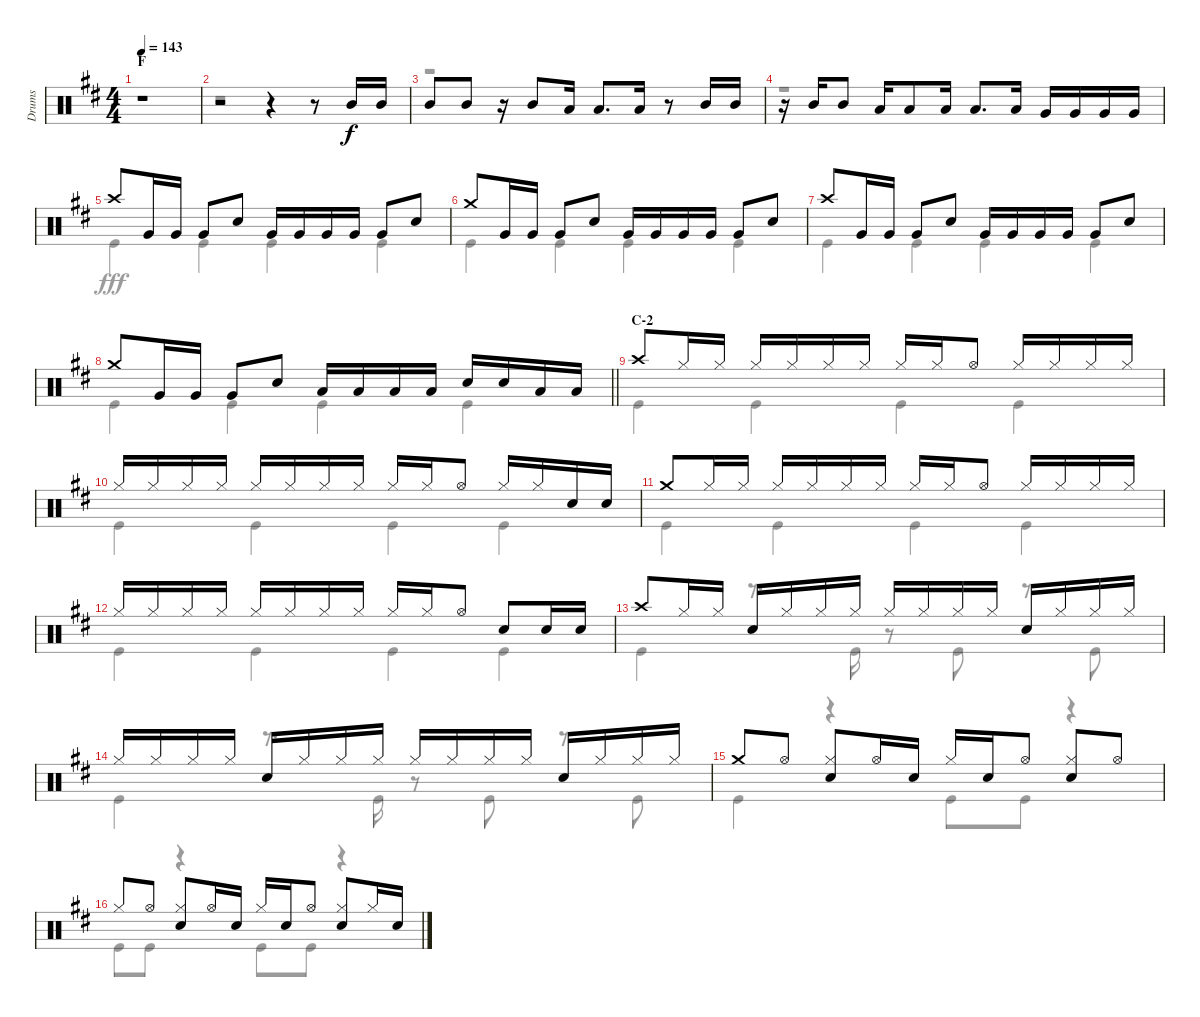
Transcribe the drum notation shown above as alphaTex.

\track ("Drums" "Drums") {instrument percussion}
\staff {score}
\articulation defaults
\voice
\ts (4 4)
\section ("" "F")
\tempo 143
\clef neutral
\ks d
r.1{dy f} |
r.2 r.4 r.8 "Mid Tom (hit)".16 "Mid Tom (hit)".16 |
"Mid Tom (hit)".8 "Mid Tom (hit)".8 r.16 "Mid Tom (hit)".8 "Low Tom (hit)".16 "Low Tom (hit)".8{d} "Low Tom (hit)".16 r.8 "Mid Tom (hit)".16 "Mid Tom (hit)".16 |
r.16 "Mid Tom (hit)".16 "Mid Tom (hit)".8 "Low Tom (hit)".16 "Low Tom (hit)".8 "Low Tom (hit)".16 "Low Tom (hit)".8{d} "Low Tom (hit)".16 "Very Low Tom (hit)".16 "Very Low Tom (hit)".16 "Very Low Tom (hit)".16 "Very Low Tom (hit)".16 |
"Crash high (hit)".8 "Very Low Tom (hit)".16 "Very Low Tom (hit)".16 "Very Low Tom (hit)".8 "Snare (hit) 2".8 "Very Low Tom (hit)".16 "Very Low Tom (hit)".16 "Very Low Tom (hit)".16 "Very Low Tom (hit)".16 "Very Low Tom (hit)".8 "Snare (hit) 2".8 |
"Crash medium (hit)".8 "Very Low Tom (hit)".16 "Very Low Tom (hit)".16 "Very Low Tom (hit)".8 "Snare (hit) 2".8 "Very Low Tom (hit)".16 "Very Low Tom (hit)".16 "Very Low Tom (hit)".16 "Very Low Tom (hit)".16 "Very Low Tom (hit)".8 "Snare (hit) 2".8 |
"Crash high (hit)".8 "Very Low Tom (hit)".16 "Very Low Tom (hit)".16 "Very Low Tom (hit)".8 "Snare (hit) 2".8 "Very Low Tom (hit)".16 "Very Low Tom (hit)".16 "Very Low Tom (hit)".16 "Very Low Tom (hit)".16 "Very Low Tom (hit)".8 "Snare (hit) 2".8 |
\barLineRight lightlight "Crash medium (hit)".8 "Very Low Tom (hit)".16 "Very Low Tom (hit)".16 "Very Low Tom (hit)".8 "Snare (hit) 2".8 "Low Tom (hit)".16 "Low Tom (hit)".16 "Low Tom (hit)".16 "Low Tom (hit)".16 "Snare (hit) 2".16 "Snare (hit) 2".16 "Low Tom (hit)".16 "Low Tom (hit)".16
|
\section ("" "C-2")
"Crash high (hit)".8 "Hi-Hat (closed)".16 "Hi-Hat (closed)".16 "Hi-Hat (closed)".16 "Hi-Hat (closed)".16 "Hi-Hat (closed)".16 "Hi-Hat (closed)".16 "Hi-Hat (closed)".16 "Hi-Hat (closed)".16 "Hi-Hat (open)".8 "Hi-Hat (closed)".16 "Hi-Hat (closed)".16 "Hi-Hat (closed)".16 "Hi-Hat (closed)".16 |
"Hi-Hat (closed)".16 "Hi-Hat (closed)".16 "Hi-Hat (closed)".16 "Hi-Hat (closed)".16 "Hi-Hat (closed)".16 "Hi-Hat (closed)".16 "Hi-Hat (closed)".16 "Hi-Hat (closed)".16 "Hi-Hat (closed)".16 "Hi-Hat (closed)".16 "Hi-Hat (open)".8 "Hi-Hat (closed)".16 "Hi-Hat (closed)".16 "Snare (hit) 2".16 "Snare (hit) 2".16 |
"Crash medium (hit)".8 "Hi-Hat (closed)".16 "Hi-Hat (closed)".16 "Hi-Hat (closed)".16 "Hi-Hat (closed)".16 "Hi-Hat (closed)".16 "Hi-Hat (closed)".16 "Hi-Hat (closed)".16 "Hi-Hat (closed)".16 "Hi-Hat (open)".8 "Hi-Hat (closed)".16 "Hi-Hat (closed)".16 "Hi-Hat (closed)".16 "Hi-Hat (closed)".16 |
"Hi-Hat (closed)".16 "Hi-Hat (closed)".16 "Hi-Hat (closed)".16 "Hi-Hat (closed)".16 "Hi-Hat (closed)".16 "Hi-Hat (closed)".16 "Hi-Hat (closed)".16 "Hi-Hat (closed)".16 "Hi-Hat (closed)".16 "Hi-Hat (closed)".16 "Hi-Hat (open)".8 "Snare (hit) 2".8 "Snare (hit) 2".16 "Snare (hit) 2".16 |
"Crash high (hit)".8 "Hi-Hat (closed)".16 "Hi-Hat (closed)".16 "Snare (hit) 2".16 "Hi-Hat (closed)".16 "Hi-Hat (closed)".16 "Hi-Hat (closed)".16 "Hi-Hat (closed)".16 "Hi-Hat (closed)".16 "Hi-Hat (closed)".16 "Hi-Hat (closed)".16 "Snare (hit) 2".16 "Hi-Hat (closed)".16 "Hi-Hat (closed)".16 "Hi-Hat (closed)".16 |
"Hi-Hat (closed)".16 "Hi-Hat (closed)".16 "Hi-Hat (closed)".16 "Hi-Hat (closed)".16 "Snare (hit) 2".16 "Hi-Hat (closed)".16 "Hi-Hat (closed)".16 "Hi-Hat (closed)".16 "Hi-Hat (closed)".16 "Hi-Hat (closed)".16 "Hi-Hat (closed)".16 "Hi-Hat (closed)".16 "Snare (hit) 2".16 "Hi-Hat (closed)".16 "Hi-Hat (closed)".16 "Hi-Hat (closed)".16 |
"Crash medium (hit)".8 "Hi-Hat (open)".8 ("Hi-Hat (closed)" "Snare (hit) 2").8 "Hi-Hat (open)".16 "Snare (hit) 2".16 "Hi-Hat (closed)".16 "Snare (hit) 2".16 "Hi-Hat (open)".8 ("Hi-Hat (closed)" "Snare (hit) 2").8 "Hi-Hat (open)".8 |
"Hi-Hat (closed)".8 "Hi-Hat (open)".8 ("Hi-Hat (closed)" "Snare (hit) 2").8 "Hi-Hat (open)".16 "Snare (hit) 2".16 "Hi-Hat (closed)".16 "Snare (hit) 2".16 "Hi-Hat (open)".8 ("Hi-Hat (closed)" "Snare (hit) 2").8 "Hi-Hat (closed)".16 "Snare (hit) 2".16
\voice
\clef neutral
\ottava regular
\simile none
\ks d
r.1{dy fff} |
r.1 |
r.1 |
r.1 |
"Kick (hit)".4 "Kick (hit)".4 "Kick (hit)".4 "Kick (hit)".4 |
"Kick (hit)".4 "Kick (hit)".4 "Kick (hit)".4 "Kick (hit)".4 |
"Kick (hit)".4 "Kick (hit)".4 "Kick (hit)".4 "Kick (hit)".4 |
\barLineRight lightlight "Kick (hit)".4 "Kick (hit)".4 "Kick (hit)".4 "Kick (hit)".4
|
"Kick (hit)".4 "Kick (hit)".4 "Kick (hit)".4 "Kick (hit)".4 |
"Kick (hit)".4 "Kick (hit)".4 "Kick (hit)".4 "Kick (hit)".4 |
"Kick (hit)".4 "Kick (hit)".4 "Kick (hit)".4 "Kick (hit)".4 |
"Kick (hit)".4 "Kick (hit)".4 "Kick (hit)".4 "Kick (hit)".4 |
"Kick (hit)".4 r.8{d} "Kick (hit)".16 r.8 "Kick (hit)".8 r.8 "Kick (hit)".8 |
"Kick (hit)".4 r.8{d} "Kick (hit)".16 r.8 "Kick (hit)".8 r.8 "Kick (hit)".8 |
"Kick (hit)".4 r.4 "Kick (hit)".8 "Kick (hit)".8 r.4 |
"Kick (hit)".8 "Kick (hit)".8 r.4 "Kick (hit)".8 "Kick (hit)".8 r.4
